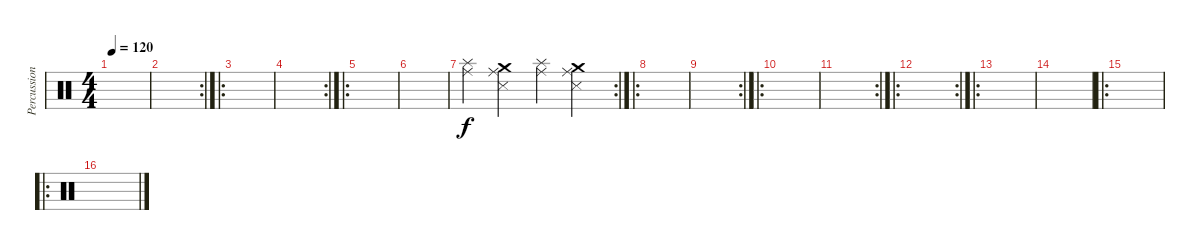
\track ("Percussion" "Percussion") {instrument percussion}
\staff {score}
\articulation defaults
\ts (4 4)
\tempo 120
\clef neutral
\ks c
|
\rc 2
|
\ro
|
\rc 2
|
\ro
|
|
\rc 2
("Splash (hit)" "Ride (middle)").4 ("Crash medium (hit)" "Metronome (hit)" "Ride (middle)").4 ("Splash (hit)" "Ride (middle)").4 ("Metronome (hit)" "Ride (middle)" "Crash medium (hit)").4 |
\ro
|
\rc 2
|
\ro
|
\rc 2
|
\ro
\rc 2
|
\ro
|
|
\ro
|
\ro
